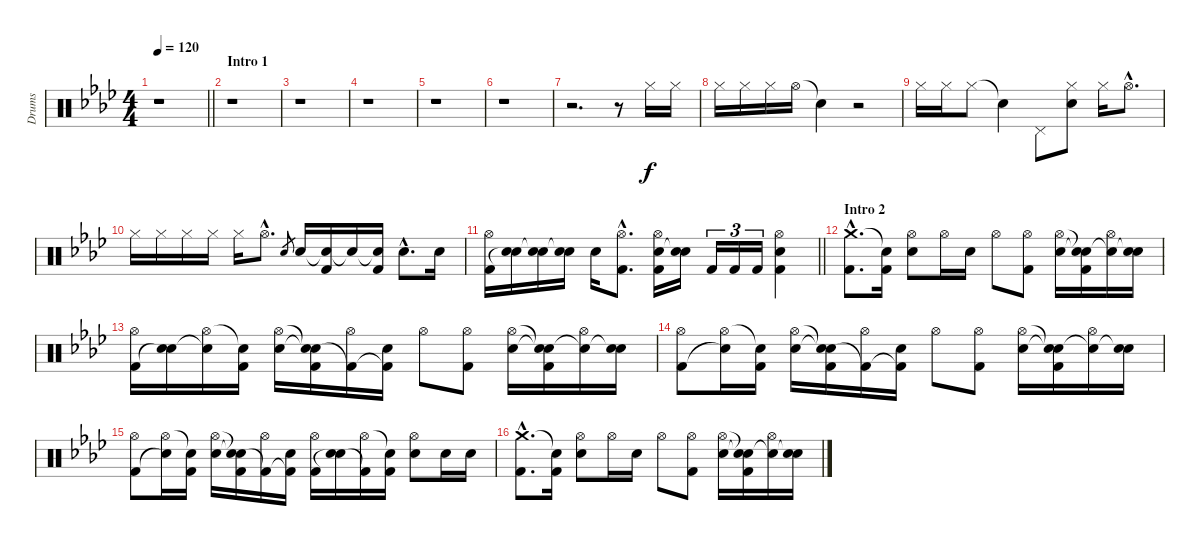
\track ("Drums" "Drums") {instrument percussion}
\staff {score}
\articulation defaults
\ts (4 4)
\tempo 120
\clef neutral
\barLineRight lightlight
\ks fminor
r.1{dy f} |
\section ("" "Intro 1")
r.1 |
r.1 |
r.1 |
r.1 |
r.1 |
r.2{d} r.8 "Hi-Hat (closed)".16 "Hi-Hat (closed)".16 |
"Hi-Hat (closed)".16 "Hi-Hat (closed)".16 "Hi-Hat (closed)".16 "Hi-Hat (open)".16 "Snare (hit)"{t}.4 r.2 |
"Hi-Hat (closed)".16 "Hi-Hat (closed)".16 "Hi-Hat (closed)".8 "Snare (hit)"{t}.4 "Pedal Hi-Hat (hit)".8 ("Hi-Hat (closed)" "Snare (hit)").8 "Hi-Hat (closed)".16 "Hi-Hat (open)"{hac}.8{d} |
"Hi-Hat (closed)".16 "Hi-Hat (closed)".16 "Hi-Hat (closed)".16 "Hi-Hat (closed)".16 "Hi-Hat (closed)".16 "Hi-Hat (open)"{hac}.8{d} "Electric Snare (hit)".8{gr} "Electric Snare (hit)".16 ("Snare (hit)"{t} "Kick (hit) 2").16 "Snare (hit)"{t}.16 ("Snare (hit)"{t} "Kick (hit) 2").16 "Electric Snare (hit)"{hac}.8{d} "Electric Snare (hit)".16 |
\barLineRight lightlight
("Hi-Hat (open)" "Kick (hit) 2").16 ("Electric Snare (hit)" "Snare (hit)"{t}).16 ("Electric Snare (hit)" "Snare (hit)"{t}).16 ("Electric Snare (hit)" "Snare (hit)"{t}).16 "Electric Snare (hit)".16 ("Hi-Hat (open)"{hac} "Kick (hit) 2"{hac}).8{d} ("Hi-Hat (open)" "Electric Snare (hit)" "Kick (hit) 2").16 ("Electric Snare (hit)" "Snare (hit)"{t}).16 "Kick (hit) 2".16{tu (3 2)} "Kick (hit) 2".16{tu (3 2)} "Kick (hit) 2".16{tu (3 2)} ("Hi-Hat (open)" "Electric Snare (hit)" "Kick (hit) 2").4 |
\section ("" "Intro 2")
("Crash medium (hit)"{hac} "Kick (hit) 2"{hac}).8{d} ("Snare (hit)"{t} "Kick (hit) 2").16 ("Hi-Hat (open)" "Electric Snare (hit)").8 "Hi-Hat (open)".16 "Electric Snare (hit)".16 "Hi-Hat (open)".8 ("Hi-Hat (open)" "Kick (hit) 2").8 ("Hi-Hat (open)" "Electric Snare (hit)").16 ("Snare (hit)"{t} "Snare (hit)"{t} "Kick (hit) 2").16 ("Hi-Hat (open)" "Snare (hit)"{t}).16 ("Electric Snare (hit)" "Snare (hit)"{t}).16 |
("Hi-Hat (open)" "Kick (hit) 2").16 ("Electric Snare (hit)" "Snare (hit)"{t}).16 ("Hi-Hat (open)" "Snare (hit)"{t}).16 ("Snare (hit)"{t} "Kick (hit) 2").16 ("Hi-Hat (open)" "Electric Snare (hit)").16 ("Snare (hit)"{t} "Snare (hit)"{t} "Kick (hit) 2").16 ("Hi-Hat (open)" "Kick (hit) 2"{t}).16 ("Electric Snare (hit)" "Kick (hit) 2"{t}).16 "Hi-Hat (open)".8 ("Hi-Hat (open)" "Kick (hit) 2").8 ("Hi-Hat (open)" "Electric Snare (hit)").16 ("Snare (hit)"{t} "Snare (hit)"{t} "Kick (hit) 2").16 ("Hi-Hat (open)" "Snare (hit)"{t}).16 ("Electric Snare (hit)" "Snare (hit)"{t}).16 |
("Hi-Hat (open)" "Kick (hit) 2").8 ("Hi-Hat (open)" "Snare (hit)"{t}).16 ("Snare (hit)"{t} "Kick (hit) 2").16 ("Hi-Hat (open)" "Electric Snare (hit)").16 ("Snare (hit)"{t} "Snare (hit)"{t} "Kick (hit) 2").16 ("Hi-Hat (open)" "Kick (hit) 2"{t}).16 ("Electric Snare (hit)" "Kick (hit) 2"{t}).16 "Hi-Hat (open)".8 ("Hi-Hat (open)" "Kick (hit) 2").8 ("Hi-Hat (open)" "Electric Snare (hit)").16 ("Snare (hit)"{t} "Snare (hit)"{t} "Kick (hit) 2").16 ("Hi-Hat (open)" "Snare (hit)"{t}).16 ("Electric Snare (hit)" "Snare (hit)"{t}).16 |
("Hi-Hat (open)" "Kick (hit) 2").8 ("Hi-Hat (open)" "Snare (hit)"{t}).16 ("Snare (hit)"{t} "Kick (hit) 2").16 ("Hi-Hat (open)" "Electric Snare (hit)").16 ("Snare (hit)"{t} "Snare (hit)"{t} "Kick (hit) 2").16 ("Hi-Hat (open)" "Kick (hit) 2"{t}).16 ("Electric Snare (hit)" "Kick (hit) 2"{t}).16 ("Hi-Hat (open)" "Kick (hit) 2").16 ("Electric Snare (hit)" "Snare (hit)"{t}).16 ("Hi-Hat (open)" "Kick (hit) 2"{t}).16 ("Snare (hit)"{t} "Kick (hit) 2").16 ("Hi-Hat (open)" "Electric Snare (hit)").8 "Electric Snare (hit)".16 "Electric Snare (hit)".16 |
("Crash medium (hit)"{hac} "Kick (hit) 2"{hac}).8{d} ("Snare (hit)"{t} "Kick (hit) 2").16 ("Hi-Hat (open)" "Electric Snare (hit)").8 "Hi-Hat (open)".16 "Electric Snare (hit)".16 "Hi-Hat (open)".8 ("Hi-Hat (open)" "Kick (hit) 2").8 ("Hi-Hat (open)" "Electric Snare (hit)").16 ("Snare (hit)"{t} "Snare (hit)"{t} "Kick (hit) 2").16 ("Hi-Hat (open)" "Snare (hit)"{t}).16 ("Electric Snare (hit)" "Snare (hit)"{t}).16
